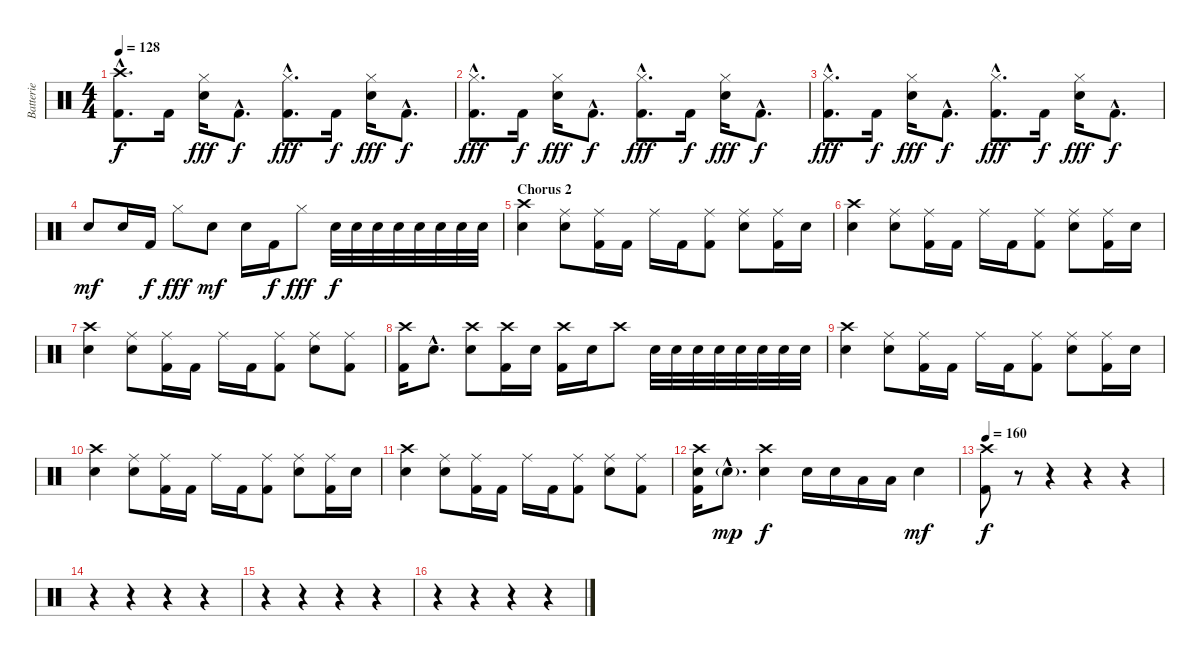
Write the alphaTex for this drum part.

\track ("Batterie" "Batterie") {instrument percussion}
\staff {score}
\articulation defaults
\ts (4 4)
\tempo 128
\clef neutral
\ks c
("Crash high (hit)"{hac} "Kick (hit) 2"{hac}).8{d dy f} "Kick (hit) 2".16 ("Hi-Hat (closed)" "Electric Snare (hit)").16{dy fff} "Kick (hit) 2"{hac}.8{d dy f} ("Hi-Hat (closed)"{hac} "Kick (hit) 2"{hac}).8{d dy fff} "Kick (hit) 2".16{dy f} ("Hi-Hat (closed)" "Electric Snare (hit)").16{dy fff} "Kick (hit) 2"{hac}.8{d dy f} |
("Hi-Hat (closed)"{hac} "Kick (hit) 2"{hac}).8{d dy fff} "Kick (hit) 2".16{dy f} ("Hi-Hat (closed)" "Electric Snare (hit)").16{dy fff} "Kick (hit) 2"{hac}.8{d dy f} ("Hi-Hat (closed)"{hac} "Kick (hit) 2"{hac}).8{d dy fff} "Kick (hit) 2".16{dy f} ("Hi-Hat (closed)" "Electric Snare (hit)").16{dy fff} "Kick (hit) 2"{hac}.8{d dy f} |
("Hi-Hat (closed)"{hac} "Kick (hit) 2"{hac}).8{d dy fff} "Kick (hit) 2".16{dy f} ("Hi-Hat (closed)" "Electric Snare (hit)").16{dy fff} "Kick (hit) 2"{hac}.8{d dy f} ("Hi-Hat (closed)"{hac} "Kick (hit) 2"{hac}).8{d dy fff} "Kick (hit) 2".16{dy f} ("Hi-Hat (closed)" "Electric Snare (hit)").16{dy fff} "Kick (hit) 2"{hac}.8{d dy f} |
"Electric Snare (hit)".8{dy mf} "Electric Snare (hit)".16 "Kick (hit) 2".16{dy f} "Hi-Hat (closed)".8{dy fff} "Electric Snare (hit)".8{dy mf} "Electric Snare (hit)".16 "Kick (hit) 2".16{dy f} "Hi-Hat (closed)".8{dy fff} "Electric Snare (hit)".32{dy f} "Electric Snare (hit)".32 "Electric Snare (hit)".32 "Electric Snare (hit)".32 "Electric Snare (hit)".32 "Electric Snare (hit)".32 "Electric Snare (hit)".32 "Electric Snare (hit)".32 |
\section ("" "Chorus 2")
("Crash high (hit)" "Electric Snare (hit)").4 ("Ride (middle)" "Electric Snare (hit)").8 ("Ride (middle)" "Kick (hit) 2").16 "Kick (hit) 2".16 "Ride (middle)".16 "Kick (hit) 2".16 ("Ride (middle)" "Kick (hit) 2").8 ("Ride (middle)" "Electric Snare (hit)").8 ("Ride (middle)" "Kick (hit) 2").16 "Electric Snare (hit)".16 |
("Crash high (hit)" "Electric Snare (hit)").4 ("Ride (middle)" "Electric Snare (hit)").8 ("Ride (middle)" "Kick (hit) 2").16 "Kick (hit) 2".16 "Ride (middle)".16 "Kick (hit) 2".16 ("Ride (middle)" "Kick (hit) 2").8 ("Ride (middle)" "Electric Snare (hit)").8 ("Ride (middle)" "Kick (hit) 2").16 "Electric Snare (hit)".16 |
("Crash high (hit)" "Electric Snare (hit)").4 ("Ride (middle)" "Electric Snare (hit)").8 ("Ride (middle)" "Kick (hit) 2").16 "Kick (hit) 2".16 "Ride (middle)".16 "Kick (hit) 2".16 ("Ride (middle)" "Kick (hit) 2").8 ("Ride (middle)" "Electric Snare (hit)").8 ("Ride (middle)" "Kick (hit) 2").8 |
("Crash high (hit)" "Kick (hit) 2").16 "Electric Snare (hit)"{hac}.8{d} ("Crash high (hit)" "Electric Snare (hit)").8 ("Crash high (hit)" "Kick (hit) 2").16 "Electric Snare (hit)".16 ("Crash high (hit)" "Kick (hit) 2").16 "Electric Snare (hit)".16 "Crash high (hit)".8 "Electric Snare (hit)".32 "Electric Snare (hit)".32 "Electric Snare (hit)".32 "Electric Snare (hit)".32 "Electric Snare (hit)".32 "Electric Snare (hit)".32 "Electric Snare (hit)".32 "Electric Snare (hit)".32 |
("Crash high (hit)" "Electric Snare (hit)").4 ("Ride (middle)" "Electric Snare (hit)").8 ("Ride (middle)" "Kick (hit) 2").16 "Kick (hit) 2".16 "Ride (middle)".16 "Kick (hit) 2".16 ("Ride (middle)" "Kick (hit) 2").8 ("Ride (middle)" "Electric Snare (hit)").8 ("Ride (middle)" "Kick (hit) 2").16 "Electric Snare (hit)".16 |
("Crash high (hit)" "Electric Snare (hit)").4 ("Ride (middle)" "Electric Snare (hit)").8 ("Ride (middle)" "Kick (hit) 2").16 "Kick (hit) 2".16 "Ride (middle)".16 "Kick (hit) 2".16 ("Ride (middle)" "Kick (hit) 2").8 ("Ride (middle)" "Electric Snare (hit)").8 ("Ride (middle)" "Kick (hit) 2").16 "Electric Snare (hit)".16 |
("Crash high (hit)" "Electric Snare (hit)").4 ("Ride (middle)" "Electric Snare (hit)").8 ("Ride (middle)" "Kick (hit) 2").16 "Kick (hit) 2".16 "Ride (middle)".16 "Kick (hit) 2".16 ("Ride (middle)" "Kick (hit) 2").8 ("Ride (middle)" "Electric Snare (hit)").8 ("Ride (middle)" "Kick (hit) 2").8 |
("Crash high (hit)" "Electric Snare (hit)" "Kick (hit) 2").16 "Electric Snare (hit)"{g hac}.8{d dy mp} ("Crash high (hit)" "Electric Snare (hit)").4{dy f} "Electric Snare (hit)".16 "Electric Snare (hit)".16 "Low Tom (hit)".16 "Low Tom (hit)".16 "Electric Snare (hit)".4{dy mf} |
\tempo 160
("Crash high (hit)" "Kick (hit) 2").8{dy f} r.8 r.4 r.4 r.4 |
r.4 r.4 r.4 r.4 |
r.4 r.4 r.4 r.4 |
r.4 r.4 r.4 r.4
